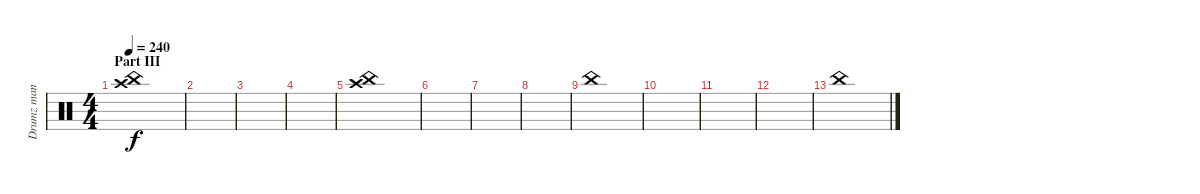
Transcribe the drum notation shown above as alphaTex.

\track ("Drumz man" "Drumz man") {instrument percussion}
\staff {score}
\articulation defaults
\ts (4 4)
\section ("" "Part III")
\tempo 240
\clef neutral
\ks c
("Crash high (hit)" "China (hit)").1{dy f} |
|
|
|
("Crash high (hit)" "China (hit)").1 |
|
|
|
"China (hit)".1 |
|
|
|
"China (hit)".1
